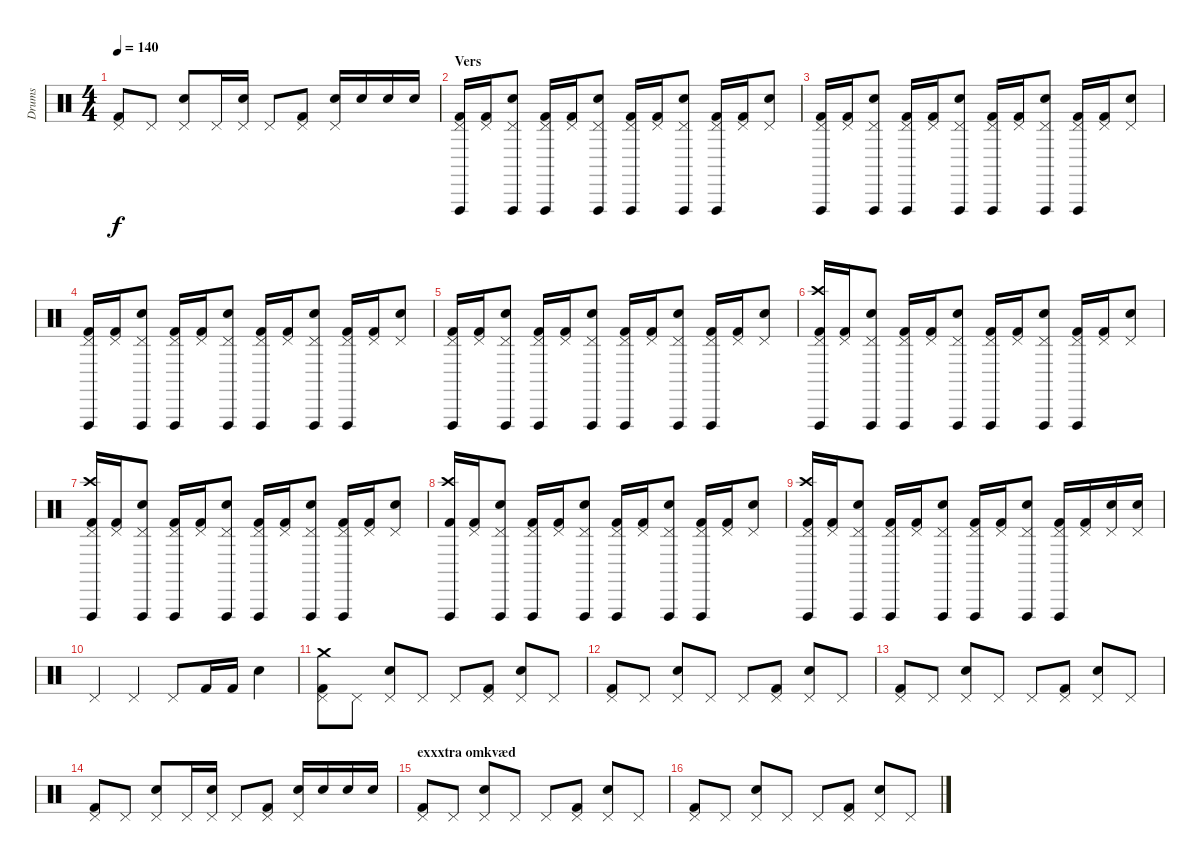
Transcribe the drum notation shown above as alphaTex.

\track ("Drums" "Drums") {instrument percussion}
\staff {score}
\articulation defaults
\ts (4 4)
\tempo 140
\clef neutral
\ks c
("Pedal Hi-Hat (hit)" "Kick (hit) 2").8{dy f} "Pedal Hi-Hat (hit)".8 ("Pedal Hi-Hat (hit)" "Snare (hit) 2").8 "Pedal Hi-Hat (hit)".16 ("Pedal Hi-Hat (hit)" "Snare (hit) 2").16 "Pedal Hi-Hat (hit)".8 ("Pedal Hi-Hat (hit)" "Kick (hit) 2").8 ("Pedal Hi-Hat (hit)" "Snare (hit) 2").16 "Snare (hit) 2".16 "Snare (hit) 2".16 "Snare (hit) 2".16 |
\section ("" "Vers")
("Pedal Hi-Hat (hit)" "Kick (hit) 2" "Vibraslap (hit)").16 ("Pedal Hi-Hat (hit)" "Kick (hit) 2").16 ("Pedal Hi-Hat (hit)" "Snare (hit) 2" "Vibraslap (hit)").8 ("Pedal Hi-Hat (hit)" "Kick (hit) 2" "Vibraslap (hit)").16 ("Pedal Hi-Hat (hit)" "Kick (hit) 2").16 ("Pedal Hi-Hat (hit)" "Snare (hit) 2" "Vibraslap (hit)").8 ("Pedal Hi-Hat (hit)" "Kick (hit) 2" "Vibraslap (hit)").16 ("Pedal Hi-Hat (hit)" "Kick (hit) 2").16 ("Pedal Hi-Hat (hit)" "Snare (hit) 2" "Vibraslap (hit)").8 ("Pedal Hi-Hat (hit)" "Kick (hit) 2" "Vibraslap (hit)").16 ("Pedal Hi-Hat (hit)" "Kick (hit) 2").16 ("Pedal Hi-Hat (hit)" "Snare (hit) 2").8 |
("Pedal Hi-Hat (hit)" "Kick (hit) 2" "Vibraslap (hit)").16 ("Pedal Hi-Hat (hit)" "Kick (hit) 2").16 ("Pedal Hi-Hat (hit)" "Snare (hit) 2" "Vibraslap (hit)").8 ("Pedal Hi-Hat (hit)" "Kick (hit) 2" "Vibraslap (hit)").16 ("Pedal Hi-Hat (hit)" "Kick (hit) 2").16 ("Pedal Hi-Hat (hit)" "Snare (hit) 2" "Vibraslap (hit)").8 ("Pedal Hi-Hat (hit)" "Kick (hit) 2" "Vibraslap (hit)").16 ("Pedal Hi-Hat (hit)" "Kick (hit) 2").16 ("Pedal Hi-Hat (hit)" "Snare (hit) 2" "Vibraslap (hit)").8 ("Pedal Hi-Hat (hit)" "Kick (hit) 2" "Vibraslap (hit)").16 ("Pedal Hi-Hat (hit)" "Kick (hit) 2").16 ("Pedal Hi-Hat (hit)" "Snare (hit) 2").8 |
("Pedal Hi-Hat (hit)" "Kick (hit) 2" "Vibraslap (hit)").16 ("Pedal Hi-Hat (hit)" "Kick (hit) 2").16 ("Pedal Hi-Hat (hit)" "Snare (hit) 2" "Vibraslap (hit)").8 ("Pedal Hi-Hat (hit)" "Kick (hit) 2" "Vibraslap (hit)").16 ("Pedal Hi-Hat (hit)" "Kick (hit) 2").16 ("Pedal Hi-Hat (hit)" "Snare (hit) 2" "Vibraslap (hit)").8 ("Pedal Hi-Hat (hit)" "Kick (hit) 2" "Vibraslap (hit)").16 ("Pedal Hi-Hat (hit)" "Kick (hit) 2").16 ("Pedal Hi-Hat (hit)" "Snare (hit) 2" "Vibraslap (hit)").8 ("Pedal Hi-Hat (hit)" "Kick (hit) 2" "Vibraslap (hit)").16 ("Pedal Hi-Hat (hit)" "Kick (hit) 2").16 ("Pedal Hi-Hat (hit)" "Snare (hit) 2").8 |
("Pedal Hi-Hat (hit)" "Kick (hit) 2" "Vibraslap (hit)").16 ("Pedal Hi-Hat (hit)" "Kick (hit) 2").16 ("Pedal Hi-Hat (hit)" "Snare (hit) 2" "Vibraslap (hit)").8 ("Pedal Hi-Hat (hit)" "Kick (hit) 2" "Vibraslap (hit)").16 ("Pedal Hi-Hat (hit)" "Kick (hit) 2").16 ("Pedal Hi-Hat (hit)" "Snare (hit) 2" "Vibraslap (hit)").8 ("Pedal Hi-Hat (hit)" "Kick (hit) 2" "Vibraslap (hit)").16 ("Pedal Hi-Hat (hit)" "Kick (hit) 2").16 ("Pedal Hi-Hat (hit)" "Snare (hit) 2" "Vibraslap (hit)").8 ("Pedal Hi-Hat (hit)" "Kick (hit) 2" "Vibraslap (hit)").16 ("Pedal Hi-Hat (hit)" "Kick (hit) 2").16 ("Pedal Hi-Hat (hit)" "Snare (hit) 2").8 |
("Crash high (hit)" "Pedal Hi-Hat (hit)" "Kick (hit) 2" "Vibraslap (hit)").16 ("Pedal Hi-Hat (hit)" "Kick (hit) 2").16 ("Pedal Hi-Hat (hit)" "Snare (hit) 2" "Vibraslap (hit)").8 ("Pedal Hi-Hat (hit)" "Kick (hit) 2" "Vibraslap (hit)").16 ("Pedal Hi-Hat (hit)" "Kick (hit) 2").16 ("Pedal Hi-Hat (hit)" "Snare (hit) 2" "Vibraslap (hit)").8 ("Pedal Hi-Hat (hit)" "Kick (hit) 2" "Vibraslap (hit)").16 ("Pedal Hi-Hat (hit)" "Kick (hit) 2").16 ("Pedal Hi-Hat (hit)" "Snare (hit) 2" "Vibraslap (hit)").8 ("Pedal Hi-Hat (hit)" "Kick (hit) 2" "Vibraslap (hit)").16 ("Pedal Hi-Hat (hit)" "Kick (hit) 2").16 ("Pedal Hi-Hat (hit)" "Snare (hit) 2").8 |
("Crash high (hit)" "Pedal Hi-Hat (hit)" "Kick (hit) 2" "Vibraslap (hit)").16 ("Pedal Hi-Hat (hit)" "Kick (hit) 2").16 ("Pedal Hi-Hat (hit)" "Snare (hit) 2" "Vibraslap (hit)").8 ("Pedal Hi-Hat (hit)" "Kick (hit) 2" "Vibraslap (hit)").16 ("Pedal Hi-Hat (hit)" "Kick (hit) 2").16 ("Pedal Hi-Hat (hit)" "Snare (hit) 2" "Vibraslap (hit)").8 ("Pedal Hi-Hat (hit)" "Kick (hit) 2" "Vibraslap (hit)").16 ("Pedal Hi-Hat (hit)" "Kick (hit) 2").16 ("Pedal Hi-Hat (hit)" "Snare (hit) 2" "Vibraslap (hit)").8 ("Pedal Hi-Hat (hit)" "Kick (hit) 2" "Vibraslap (hit)").16 ("Pedal Hi-Hat (hit)" "Kick (hit) 2").16 ("Pedal Hi-Hat (hit)" "Snare (hit) 2").8 |
("Crash high (hit)" "Kick (hit) 2" "Vibraslap (hit)").16 ("Pedal Hi-Hat (hit)" "Kick (hit) 2").16 ("Pedal Hi-Hat (hit)" "Snare (hit) 2" "Vibraslap (hit)").8 ("Pedal Hi-Hat (hit)" "Kick (hit) 2" "Vibraslap (hit)").16 ("Pedal Hi-Hat (hit)" "Kick (hit) 2").16 ("Pedal Hi-Hat (hit)" "Snare (hit) 2" "Vibraslap (hit)").8 ("Pedal Hi-Hat (hit)" "Kick (hit) 2" "Vibraslap (hit)").16 ("Pedal Hi-Hat (hit)" "Kick (hit) 2").16 ("Pedal Hi-Hat (hit)" "Snare (hit) 2" "Vibraslap (hit)").8 ("Pedal Hi-Hat (hit)" "Kick (hit) 2" "Vibraslap (hit)").16 ("Pedal Hi-Hat (hit)" "Kick (hit) 2").16 ("Pedal Hi-Hat (hit)" "Snare (hit) 2").8 |
("Crash high (hit)" "Pedal Hi-Hat (hit)" "Kick (hit) 2" "Vibraslap (hit)").16 ("Pedal Hi-Hat (hit)" "Kick (hit) 2").16 ("Pedal Hi-Hat (hit)" "Snare (hit) 2" "Vibraslap (hit)").8 ("Pedal Hi-Hat (hit)" "Kick (hit) 2" "Vibraslap (hit)").16 ("Pedal Hi-Hat (hit)" "Kick (hit) 2").16 ("Pedal Hi-Hat (hit)" "Snare (hit) 2" "Vibraslap (hit)").8 ("Pedal Hi-Hat (hit)" "Kick (hit) 2" "Vibraslap (hit)").16 ("Pedal Hi-Hat (hit)" "Kick (hit) 2").16 ("Pedal Hi-Hat (hit)" "Snare (hit) 2" "Vibraslap (hit)").8 ("Pedal Hi-Hat (hit)" "Kick (hit) 2" "Vibraslap (hit)").16 ("Pedal Hi-Hat (hit)" "Kick (hit) 2").16 ("Pedal Hi-Hat (hit)" "Snare (hit) 2").16 ("Pedal Hi-Hat (hit)" "Snare (hit) 2").16 |
"Pedal Hi-Hat (hit)".4 "Pedal Hi-Hat (hit)".4 "Pedal Hi-Hat (hit)".8 "Kick (hit) 2".16 "Kick (hit) 2".16 "Snare (hit) 2".4 |
("Crash medium (hit)" "Pedal Hi-Hat (hit)" "Kick (hit) 2").8 "Pedal Hi-Hat (hit)".8 ("Pedal Hi-Hat (hit)" "Snare (hit) 2").8 "Pedal Hi-Hat (hit)".8 "Pedal Hi-Hat (hit)".8 ("Pedal Hi-Hat (hit)" "Kick (hit) 2").8 ("Pedal Hi-Hat (hit)" "Snare (hit) 2").8 "Pedal Hi-Hat (hit)".8 |
("Pedal Hi-Hat (hit)" "Kick (hit) 2").8 "Pedal Hi-Hat (hit)".8 ("Pedal Hi-Hat (hit)" "Snare (hit) 2").8 "Pedal Hi-Hat (hit)".8 "Pedal Hi-Hat (hit)".8 ("Pedal Hi-Hat (hit)" "Kick (hit) 2").8 ("Pedal Hi-Hat (hit)" "Snare (hit) 2").8 "Pedal Hi-Hat (hit)".8 |
("Pedal Hi-Hat (hit)" "Kick (hit) 2").8 "Pedal Hi-Hat (hit)".8 ("Pedal Hi-Hat (hit)" "Snare (hit) 2").8 "Pedal Hi-Hat (hit)".8 "Pedal Hi-Hat (hit)".8 ("Pedal Hi-Hat (hit)" "Kick (hit) 2").8 ("Pedal Hi-Hat (hit)" "Snare (hit) 2").8 "Pedal Hi-Hat (hit)".8 |
("Pedal Hi-Hat (hit)" "Kick (hit) 2").8 "Pedal Hi-Hat (hit)".8 ("Pedal Hi-Hat (hit)" "Snare (hit) 2").8 "Pedal Hi-Hat (hit)".16 ("Pedal Hi-Hat (hit)" "Snare (hit) 2").16 "Pedal Hi-Hat (hit)".8 ("Pedal Hi-Hat (hit)" "Kick (hit) 2").8 ("Pedal Hi-Hat (hit)" "Snare (hit) 2").16 "Snare (hit) 2".16 "Snare (hit) 2".16 "Snare (hit) 2".16 |
\section ("" "exxxtra omkvæd")
("Pedal Hi-Hat (hit)" "Kick (hit) 2").8 "Pedal Hi-Hat (hit)".8 ("Pedal Hi-Hat (hit)" "Snare (hit) 2").8 "Pedal Hi-Hat (hit)".8 "Pedal Hi-Hat (hit)".8 ("Pedal Hi-Hat (hit)" "Kick (hit) 2").8 ("Pedal Hi-Hat (hit)" "Snare (hit) 2").8 "Pedal Hi-Hat (hit)".8 |
("Pedal Hi-Hat (hit)" "Kick (hit) 2").8 "Pedal Hi-Hat (hit)".8 ("Pedal Hi-Hat (hit)" "Snare (hit) 2").8 "Pedal Hi-Hat (hit)".8 "Pedal Hi-Hat (hit)".8 ("Pedal Hi-Hat (hit)" "Kick (hit) 2").8 ("Pedal Hi-Hat (hit)" "Snare (hit) 2").8 "Pedal Hi-Hat (hit)".8
